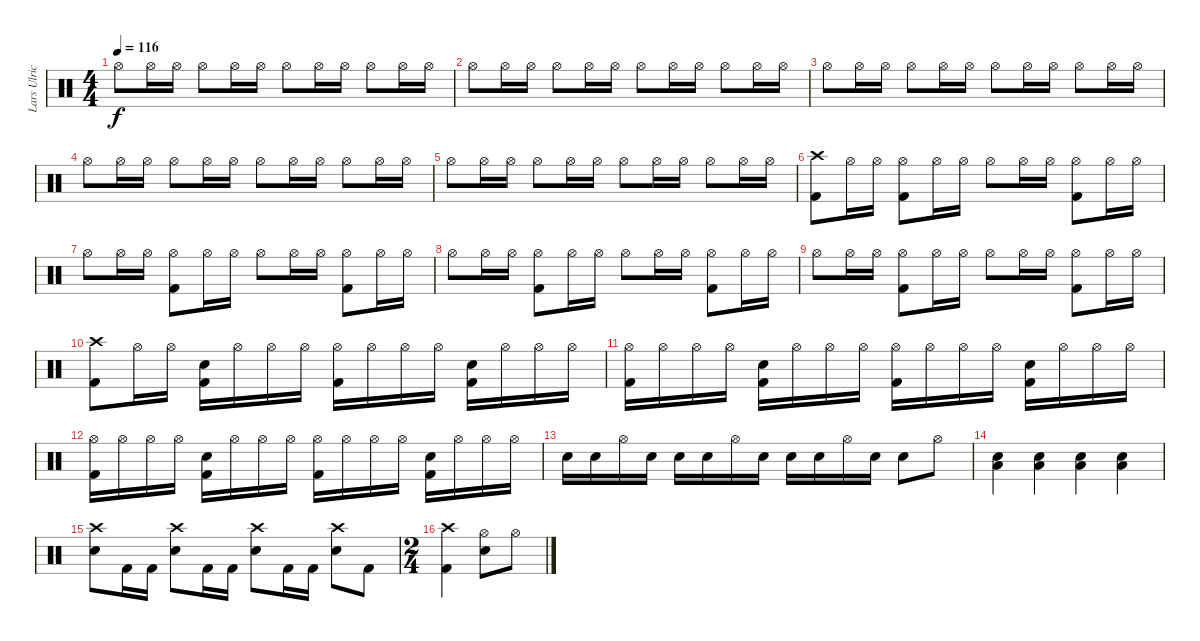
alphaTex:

\track ("Lars Ulrich" "Lars Ulric") {instrument percussion}
\staff {score}
\articulation defaults
\ts (4 4)
\tempo 116
\clef neutral
\ks c "Hi-Hat (open)".8{dy f} "Hi-Hat (open)".16 "Hi-Hat (open)".16 "Hi-Hat (open)".8 "Hi-Hat (open)".16 "Hi-Hat (open)".16 "Hi-Hat (open)".8 "Hi-Hat (open)".16 "Hi-Hat (open)".16 "Hi-Hat (open)".8 "Hi-Hat (open)".16 "Hi-Hat (open)".16
|
"Hi-Hat (open)".8 "Hi-Hat (open)".16 "Hi-Hat (open)".16 "Hi-Hat (open)".8 "Hi-Hat (open)".16 "Hi-Hat (open)".16 "Hi-Hat (open)".8 "Hi-Hat (open)".16 "Hi-Hat (open)".16 "Hi-Hat (open)".8 "Hi-Hat (open)".16 "Hi-Hat (open)".16 |
"Hi-Hat (open)".8 "Hi-Hat (open)".16 "Hi-Hat (open)".16 "Hi-Hat (open)".8 "Hi-Hat (open)".16 "Hi-Hat (open)".16 "Hi-Hat (open)".8 "Hi-Hat (open)".16 "Hi-Hat (open)".16 "Hi-Hat (open)".8 "Hi-Hat (open)".16 "Hi-Hat (open)".16 |
"Hi-Hat (open)".8 "Hi-Hat (open)".16 "Hi-Hat (open)".16 "Hi-Hat (open)".8 "Hi-Hat (open)".16 "Hi-Hat (open)".16 "Hi-Hat (open)".8 "Hi-Hat (open)".16 "Hi-Hat (open)".16 "Hi-Hat (open)".8 "Hi-Hat (open)".16 "Hi-Hat (open)".16 |
"Hi-Hat (open)".8 "Hi-Hat (open)".16 "Hi-Hat (open)".16 "Hi-Hat (open)".8 "Hi-Hat (open)".16 "Hi-Hat (open)".16 "Hi-Hat (open)".8 "Hi-Hat (open)".16 "Hi-Hat (open)".16 "Hi-Hat (open)".8 "Hi-Hat (open)".16 "Hi-Hat (open)".16 |
("Crash high (hit)" "Kick (hit) 2").8 "Hi-Hat (open)".16 "Hi-Hat (open)".16 ("Hi-Hat (open)" "Kick (hit) 2").8 "Hi-Hat (open)".16 "Hi-Hat (open)".16 "Hi-Hat (open)".8 "Hi-Hat (open)".16 "Hi-Hat (open)".16 ("Hi-Hat (open)" "Kick (hit) 2").8 "Hi-Hat (open)".16 "Hi-Hat (open)".16 |
"Hi-Hat (open)".8 "Hi-Hat (open)".16 "Hi-Hat (open)".16 ("Hi-Hat (open)" "Kick (hit) 2").8 "Hi-Hat (open)".16 "Hi-Hat (open)".16 "Hi-Hat (open)".8 "Hi-Hat (open)".16 "Hi-Hat (open)".16 ("Hi-Hat (open)" "Kick (hit) 2").8 "Hi-Hat (open)".16 "Hi-Hat (open)".16 |
"Hi-Hat (open)".8 "Hi-Hat (open)".16 "Hi-Hat (open)".16 ("Hi-Hat (open)" "Kick (hit) 2").8 "Hi-Hat (open)".16 "Hi-Hat (open)".16 "Hi-Hat (open)".8 "Hi-Hat (open)".16 "Hi-Hat (open)".16 ("Hi-Hat (open)" "Kick (hit) 2").8 "Hi-Hat (open)".16 "Hi-Hat (open)".16 |
"Hi-Hat (open)".8 "Hi-Hat (open)".16 "Hi-Hat (open)".16 ("Hi-Hat (open)" "Kick (hit) 2").8 "Hi-Hat (open)".16 "Hi-Hat (open)".16 "Hi-Hat (open)".8 "Hi-Hat (open)".16 "Hi-Hat (open)".16 ("Hi-Hat (open)" "Kick (hit) 2").8 "Hi-Hat (open)".16 "Hi-Hat (open)".16 |
("Crash high (hit)" "Kick (hit) 2").8 "Hi-Hat (open)".16 "Hi-Hat (open)".16 ("Electric Snare (hit)" "Kick (hit) 2").16 "Hi-Hat (open)".16 "Hi-Hat (open)".16 "Hi-Hat (open)".16 ("Hi-Hat (open)" "Kick (hit) 2").16 "Hi-Hat (open)".16 "Hi-Hat (open)".16 "Hi-Hat (open)".16 ("Electric Snare (hit)" "Kick (hit) 2").16 "Hi-Hat (open)".16 "Hi-Hat (open)".16 "Hi-Hat (open)".16 |
("Hi-Hat (open)" "Kick (hit) 2").16 "Hi-Hat (open)".16 "Hi-Hat (open)".16 "Hi-Hat (open)".16 ("Electric Snare (hit)" "Kick (hit) 2").16 "Hi-Hat (open)".16 "Hi-Hat (open)".16 "Hi-Hat (open)".16 ("Hi-Hat (open)" "Kick (hit) 2").16 "Hi-Hat (open)".16 "Hi-Hat (open)".16 "Hi-Hat (open)".16 ("Electric Snare (hit)" "Kick (hit) 2").16 "Hi-Hat (open)".16 "Hi-Hat (open)".16 "Hi-Hat (open)".16 |
("Hi-Hat (open)" "Kick (hit) 2").16 "Hi-Hat (open)".16 "Hi-Hat (open)".16 "Hi-Hat (open)".16 ("Electric Snare (hit)" "Kick (hit) 2").16 "Hi-Hat (open)".16 "Hi-Hat (open)".16 "Hi-Hat (open)".16 ("Hi-Hat (open)" "Kick (hit) 2").16 "Hi-Hat (open)".16 "Hi-Hat (open)".16 "Hi-Hat (open)".16 ("Electric Snare (hit)" "Kick (hit) 2").16 "Hi-Hat (open)".16 "Hi-Hat (open)".16 "Hi-Hat (open)".16 |
"Electric Snare (hit)".16 "Electric Snare (hit)".16 "Hi-Hat (open)".16 "Electric Snare (hit)".16 "Electric Snare (hit)".16 "Electric Snare (hit)".16 "Hi-Hat (open)".16 "Electric Snare (hit)".16 "Electric Snare (hit)".16 "Electric Snare (hit)".16 "Hi-Hat (open)".16 "Electric Snare (hit)".16 "Electric Snare (hit)".8 "Hi-Hat (open)".8 |
("Electric Snare (hit)" "Low Floor Tom (hit)").4 ("Electric Snare (hit)" "Low Floor Tom (hit)").4 ("Electric Snare (hit)" "Low Floor Tom (hit)").4 ("Electric Snare (hit)" "Low Floor Tom (hit)").4 |
("Crash high (hit)" "Electric Snare (hit)").8 "Kick (hit) 2".16 "Kick (hit) 2".16 ("Crash high (hit)" "Electric Snare (hit)").8 "Kick (hit) 2".16 "Kick (hit) 2".16 ("Crash high (hit)" "Electric Snare (hit)").8 "Kick (hit) 2".16 "Kick (hit) 2".16 ("Crash high (hit)" "Electric Snare (hit)").8 "Kick (hit) 2".8 |
\ts (2 4)
("Crash high (hit)" "Kick (hit) 2").4 ("Hi-Hat (open)" "Electric Snare (hit)").8 "Hi-Hat (open)".8
